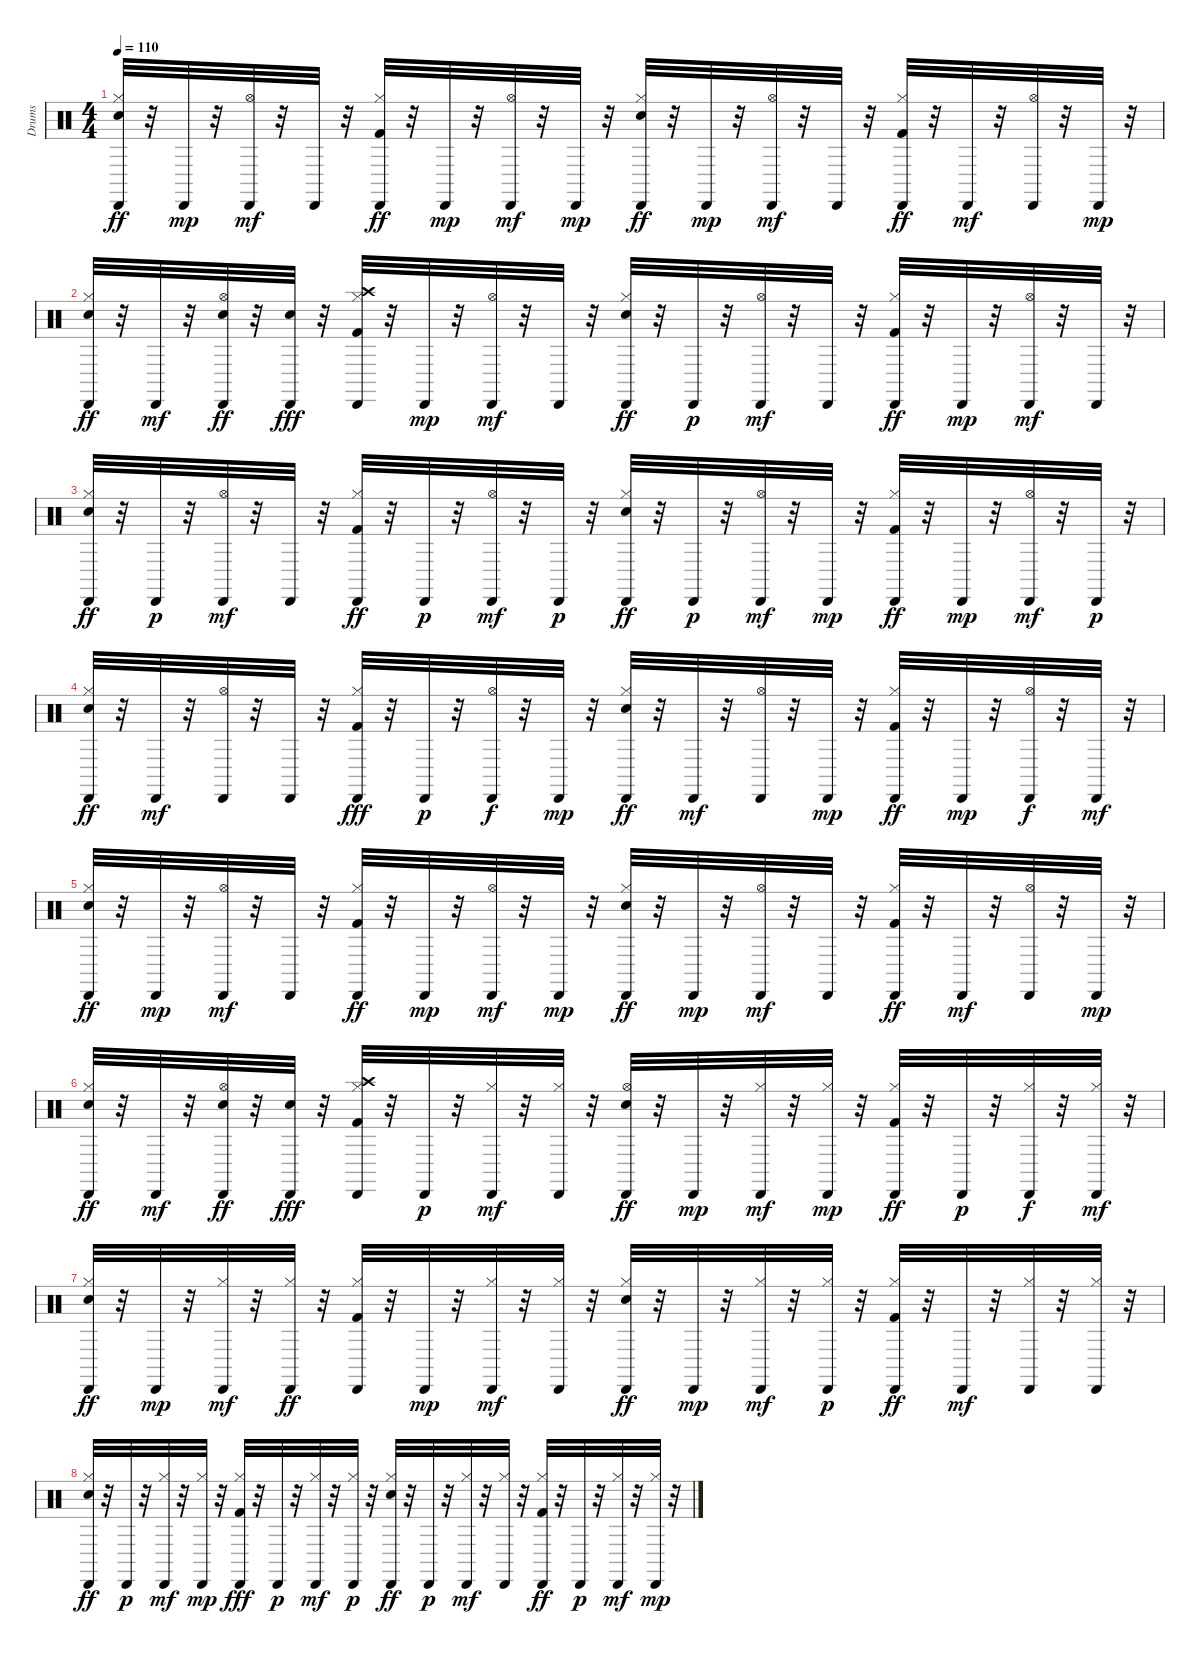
\track ("Drums" "Drums") {instrument percussion}
\staff {score}
\articulation defaults
\ts (4 4)
\tempo 110
\clef neutral
\ks c
("Cabasa (hit)" "Hi-Hat (closed)" "Snare (hit) 2").32{dy ff} r.32 "Cabasa (hit)".32{dy mp} r.32 ("Hi-Hat (open)" "Cabasa (hit)").32{dy mf} r.32 "Cabasa (hit)".32 r.32 ("Cabasa (hit)" "Hi-Hat (closed)" "Kick (hit) 2").32{dy ff} r.32 "Cabasa (hit)".32{dy mp} r.32 ("Hi-Hat (open)" "Cabasa (hit)").32{dy mf} r.32 "Cabasa (hit)".32{dy mp} r.32 ("Cabasa (hit)" "Hi-Hat (closed)" "Snare (hit) 2").32{dy ff} r.32 "Cabasa (hit)".32{dy mp} r.32 ("Hi-Hat (open)" "Cabasa (hit)").32{dy mf} r.32 "Cabasa (hit)".32 r.32 ("Cabasa (hit)" "Hi-Hat (closed)" "Kick (hit) 2").32{dy ff} r.32 "Cabasa (hit)".32{dy mf} r.32 ("Hi-Hat (open)" "Cabasa (hit)").32 r.32 "Cabasa (hit)".32{dy mp} r.32 |
("Cabasa (hit)" "Hi-Hat (closed)" "Snare (hit) 2").32{dy ff} r.32 "Cabasa (hit)".32{dy mf} r.32 ("Hi-Hat (open)" "Cabasa (hit)" "Snare (hit) 2").32{dy ff} r.32 ("Cabasa (hit)" "Snare (hit) 2").32{dy fff} r.32 ("Cabasa (hit)" "Crash high (hit)" "Hi-Hat (closed)" "Kick (hit) 2").32 r.32 "Cabasa (hit)".32{dy mp} r.32 ("Hi-Hat (open)" "Cabasa (hit)").32{dy mf} r.32 "Cabasa (hit)".32 r.32 ("Cabasa (hit)" "Hi-Hat (closed)" "Snare (hit) 2").32{dy ff} r.32 "Cabasa (hit)".32{dy p} r.32 ("Hi-Hat (open)" "Cabasa (hit)").32{dy mf} r.32 "Cabasa (hit)".32 r.32 ("Cabasa (hit)" "Hi-Hat (closed)" "Kick (hit) 2").32{dy ff} r.32 "Cabasa (hit)".32{dy mp} r.32 ("Hi-Hat (open)" "Cabasa (hit)").32{dy mf} r.32 "Cabasa (hit)".32 r.32 |
("Cabasa (hit)" "Hi-Hat (closed)" "Snare (hit) 2").32{dy ff} r.32 "Cabasa (hit)".32{dy p} r.32 ("Hi-Hat (open)" "Cabasa (hit)").32{dy mf} r.32 "Cabasa (hit)".32 r.32 ("Cabasa (hit)" "Hi-Hat (closed)" "Kick (hit) 2").32{dy ff} r.32 "Cabasa (hit)".32{dy p} r.32 ("Hi-Hat (open)" "Cabasa (hit)").32{dy mf} r.32 "Cabasa (hit)".32{dy p} r.32 ("Cabasa (hit)" "Hi-Hat (closed)" "Snare (hit) 2").32{dy ff} r.32 "Cabasa (hit)".32{dy p} r.32 ("Hi-Hat (open)" "Cabasa (hit)").32{dy mf} r.32 "Cabasa (hit)".32{dy mp} r.32 ("Cabasa (hit)" "Hi-Hat (closed)" "Kick (hit) 2").32{dy ff} r.32 "Cabasa (hit)".32{dy mp} r.32 ("Hi-Hat (open)" "Cabasa (hit)").32{dy mf} r.32 "Cabasa (hit)".32{dy p} r.32 |
("Cabasa (hit)" "Hi-Hat (closed)" "Snare (hit) 2").32{dy ff} r.32 "Cabasa (hit)".32{dy mf} r.32 ("Hi-Hat (open)" "Cabasa (hit)").32 r.32 "Cabasa (hit)".32 r.32 ("Cabasa (hit)" "Hi-Hat (closed)" "Kick (hit) 2").32{dy fff} r.32 "Cabasa (hit)".32{dy p} r.32 ("Hi-Hat (open)" "Cabasa (hit)").32{dy f} r.32 "Cabasa (hit)".32{dy mp} r.32 ("Cabasa (hit)" "Hi-Hat (closed)" "Snare (hit) 2").32{dy ff} r.32 "Cabasa (hit)".32{dy mf} r.32 ("Hi-Hat (open)" "Cabasa (hit)").32 r.32 "Cabasa (hit)".32{dy mp} r.32 ("Cabasa (hit)" "Hi-Hat (closed)" "Kick (hit) 2").32{dy ff} r.32 "Cabasa (hit)".32{dy mp} r.32 ("Hi-Hat (open)" "Cabasa (hit)").32{dy f} r.32 "Cabasa (hit)".32{dy mf} r.32 |
("Cabasa (hit)" "Hi-Hat (closed)" "Snare (hit) 2").32{dy ff} r.32 "Cabasa (hit)".32{dy mp} r.32 ("Hi-Hat (open)" "Cabasa (hit)").32{dy mf} r.32 "Cabasa (hit)".32 r.32 ("Cabasa (hit)" "Hi-Hat (closed)" "Kick (hit) 2").32{dy ff} r.32 "Cabasa (hit)".32{dy mp} r.32 ("Hi-Hat (open)" "Cabasa (hit)").32{dy mf} r.32 "Cabasa (hit)".32{dy mp} r.32 ("Cabasa (hit)" "Hi-Hat (closed)" "Snare (hit) 2").32{dy ff} r.32 "Cabasa (hit)".32{dy mp} r.32 ("Hi-Hat (open)" "Cabasa (hit)").32{dy mf} r.32 "Cabasa (hit)".32 r.32 ("Cabasa (hit)" "Hi-Hat (closed)" "Kick (hit) 2").32{dy ff} r.32 "Cabasa (hit)".32{dy mf} r.32 ("Hi-Hat (open)" "Cabasa (hit)").32 r.32 "Cabasa (hit)".32{dy mp} r.32 |
("Cabasa (hit)" "Hi-Hat (closed)" "Snare (hit) 2").32{dy ff} r.32 "Cabasa (hit)".32{dy mf} r.32 ("Hi-Hat (open)" "Cabasa (hit)" "Snare (hit) 2").32{dy ff} r.32 ("Cabasa (hit)" "Snare (hit) 2").32{dy fff} r.32 ("Cabasa (hit)" "Crash high (hit)" "Hi-Hat (closed)" "Kick (hit) 2").32 r.32 "Cabasa (hit)".32{dy p} r.32 ("Cabasa (hit)" "Hi-Hat (closed)").32{dy mf} r.32 ("Cabasa (hit)" "Hi-Hat (closed)").32 r.32 ("Hi-Hat (open)" "Cabasa (hit)" "Snare (hit) 2").32{dy ff} r.32 "Cabasa (hit)".32{dy mp} r.32 ("Cabasa (hit)" "Hi-Hat (closed)").32{dy mf} r.32 ("Cabasa (hit)" "Hi-Hat (closed)").32{dy mp} r.32 ("Cabasa (hit)" "Hi-Hat (closed)" "Kick (hit) 2").32{dy ff} r.32 "Cabasa (hit)".32{dy p} r.32 ("Cabasa (hit)" "Hi-Hat (closed)").32{dy f} r.32 ("Cabasa (hit)" "Hi-Hat (closed)").32{dy mf} r.32 |
("Cabasa (hit)" "Hi-Hat (closed)" "Snare (hit) 2").32{dy ff} r.32 "Cabasa (hit)".32{dy mp} r.32 ("Cabasa (hit)" "Hi-Hat (closed)").32{dy mf} r.32 ("Cabasa (hit)" "Hi-Hat (closed)").32{dy ff} r.32 ("Cabasa (hit)" "Hi-Hat (closed)" "Kick (hit) 2").32 r.32 "Cabasa (hit)".32{dy mp} r.32 ("Cabasa (hit)" "Hi-Hat (closed)").32{dy mf} r.32 ("Cabasa (hit)" "Hi-Hat (closed)").32 r.32 ("Cabasa (hit)" "Hi-Hat (closed)" "Snare (hit) 2").32{dy ff} r.32 "Cabasa (hit)".32{dy mp} r.32 ("Cabasa (hit)" "Hi-Hat (closed)").32{dy mf} r.32 ("Cabasa (hit)" "Hi-Hat (closed)").32{dy p} r.32 ("Cabasa (hit)" "Hi-Hat (closed)" "Kick (hit) 2").32{dy ff} r.32 "Cabasa (hit)".32{dy mf} r.32 ("Cabasa (hit)" "Hi-Hat (closed)").32 r.32 ("Cabasa (hit)" "Hi-Hat (closed)").32 r.32 |
("Cabasa (hit)" "Hi-Hat (closed)" "Snare (hit) 2").32{dy ff} r.32 "Cabasa (hit)".32{dy p} r.32 ("Cabasa (hit)" "Hi-Hat (closed)").32{dy mf} r.32 ("Cabasa (hit)" "Hi-Hat (closed)").32{dy mp} r.32 ("Cabasa (hit)" "Hi-Hat (closed)" "Kick (hit) 2").32{dy fff} r.32 "Cabasa (hit)".32{dy p} r.32 ("Cabasa (hit)" "Hi-Hat (closed)").32{dy mf} r.32 ("Cabasa (hit)" "Hi-Hat (closed)").32{dy p} r.32 ("Cabasa (hit)" "Hi-Hat (closed)" "Snare (hit) 2").32{dy ff} r.32 "Cabasa (hit)".32{dy p} r.32 ("Cabasa (hit)" "Hi-Hat (closed)").32{dy mf} r.32 ("Cabasa (hit)" "Hi-Hat (closed)").32 r.32 ("Cabasa (hit)" "Hi-Hat (closed)" "Kick (hit) 2").32{dy ff} r.32 "Cabasa (hit)".32{dy p} r.32 ("Cabasa (hit)" "Hi-Hat (closed)").32{dy mf} r.32 ("Cabasa (hit)" "Hi-Hat (closed)").32{dy mp} r.32
